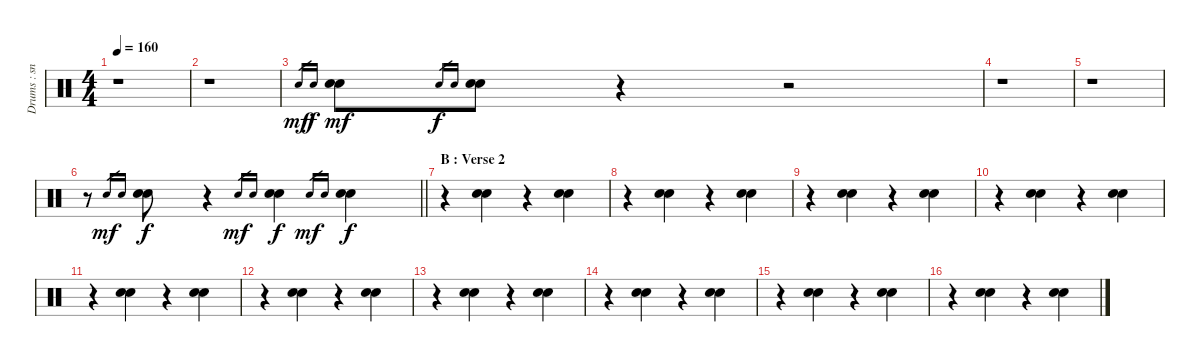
\track ("Drums : snare" "Drums : sn") {instrument percussion}
\staff {score}
\articulation defaults
\ts (4 4)
\tempo 160
\clef neutral
\ks c
r.1{dy mf} |
r.1 |
"Electric Snare (hit)".16{gr} "Snare (hit) 2".16{gr dy f} ("Electric Snare (hit)" "Snare (hit) 2").8{dy mf} "Electric Snare (hit)".16{gr dy f} "Snare (hit) 2".16{gr} ("Electric Snare (hit)" "Snare (hit) 2").8 r.4 r.2 |
r.1 |
r.1 |
\barLineRight lightlight
r.8 "Snare (hit) 2".16{gr dy mf} "Electric Snare (hit)".16{gr} ("Snare (hit) 2" "Electric Snare (hit)").8{dy f volume 13} r.4 "Snare (hit) 2".16{gr dy mf} "Electric Snare (hit)".16{gr} ("Snare (hit) 2" "Electric Snare (hit)").4{dy f} "Snare (hit) 2".16{gr dy mf} "Electric Snare (hit)".16{gr} ("Snare (hit) 2" "Electric Snare (hit)").4{dy f} |
\section ("" "B : Verse 2")
r.4 ("Snare (hit) 2" "Electric Snare (hit)").4 r.4 ("Snare (hit) 2" "Electric Snare (hit)").4 |
r.4 ("Snare (hit) 2" "Electric Snare (hit)").4 r.4 ("Snare (hit) 2" "Electric Snare (hit)").4 |
r.4 ("Snare (hit) 2" "Electric Snare (hit)").4 r.4 ("Snare (hit) 2" "Electric Snare (hit)").4 |
r.4 ("Snare (hit) 2" "Electric Snare (hit)").4 r.4 ("Snare (hit) 2" "Electric Snare (hit)").4 |
r.4 ("Snare (hit) 2" "Electric Snare (hit)").4 r.4 ("Snare (hit) 2" "Electric Snare (hit)").4 |
r.4 ("Snare (hit) 2" "Electric Snare (hit)").4 r.4 ("Snare (hit) 2" "Electric Snare (hit)").4 |
r.4 ("Snare (hit) 2" "Electric Snare (hit)").4 r.4 ("Snare (hit) 2" "Electric Snare (hit)").4 |
r.4 ("Snare (hit) 2" "Electric Snare (hit)").4 r.4 ("Snare (hit) 2" "Electric Snare (hit)").4 |
r.4 ("Snare (hit) 2" "Electric Snare (hit)").4 r.4 ("Snare (hit) 2" "Electric Snare (hit)").4 |
r.4 ("Snare (hit) 2" "Electric Snare (hit)").4 r.4 ("Snare (hit) 2" "Electric Snare (hit)").4
